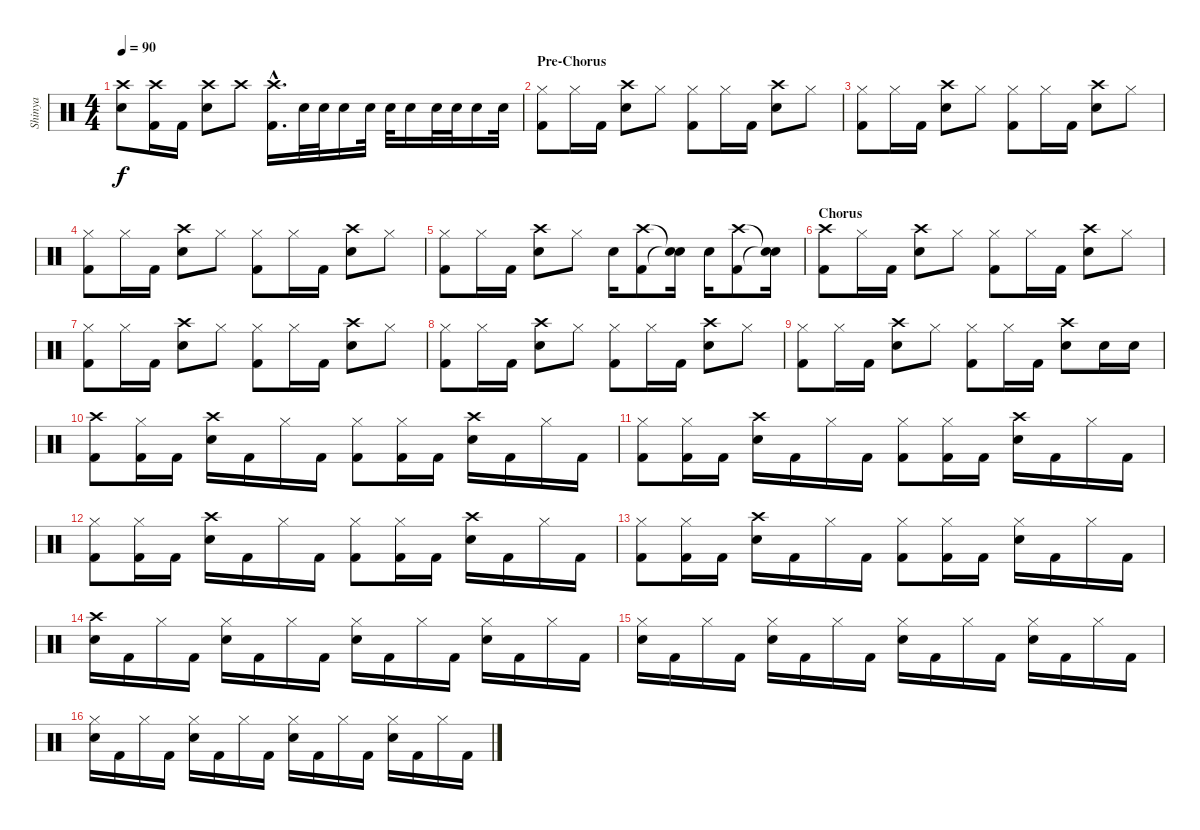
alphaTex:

\track ("Shinya" "Shinya") {instrument percussion}
\staff {score}
\articulation defaults
\ts (4 4)
\tempo 90
\clef neutral
\ks c
("Crash high (hit)" "Snare (hit) 2").8{dy f} ("Crash high (hit)" "Kick (hit) 2").16 "Kick (hit) 2".16 ("Crash high (hit)" "Snare (hit) 2").8 "Crash high (hit)".8 ("Kick (hit) 2"{hac} "Crash high (hit)").16{d} "Snare (hit) 2".32 "Snare (hit) 2".32 "Snare (hit) 2".16 "Snare (hit) 2".32 "Snare (hit) 2".32 "Snare (hit) 2".16 "Snare (hit) 2".32 "Snare (hit) 2".32 "Snare (hit) 2".16 "Snare (hit) 2".32 |
\section ("" "Pre-Chorus")
("Hi-Hat (closed)" "Kick (hit) 2").8 "Hi-Hat (closed)".16 "Kick (hit) 2".16 ("Crash high (hit)" "Snare (hit) 2").8 "Hi-Hat (closed)".8 ("Hi-Hat (closed)" "Kick (hit) 2").8 "Hi-Hat (closed)".16 "Kick (hit) 2".16 ("Crash high (hit)" "Snare (hit) 2").8 "Hi-Hat (closed)".8 |
("Hi-Hat (closed)" "Kick (hit) 2").8 "Hi-Hat (closed)".16 "Kick (hit) 2".16 ("Crash high (hit)" "Snare (hit) 2").8 "Hi-Hat (closed)".8 ("Hi-Hat (closed)" "Kick (hit) 2").8 "Hi-Hat (closed)".16 "Kick (hit) 2".16 ("Crash high (hit)" "Snare (hit) 2").8 "Hi-Hat (closed)".8 |
("Hi-Hat (closed)" "Kick (hit) 2").8 "Hi-Hat (closed)".16 "Kick (hit) 2".16 ("Crash high (hit)" "Snare (hit) 2").8 "Hi-Hat (closed)".8 ("Hi-Hat (closed)" "Kick (hit) 2").8 "Hi-Hat (closed)".16 "Kick (hit) 2".16 ("Crash high (hit)" "Snare (hit) 2").8 "Hi-Hat (closed)".8 |
("Hi-Hat (closed)" "Kick (hit) 2").8 "Hi-Hat (closed)".16 "Kick (hit) 2".16 ("Crash high (hit)" "Snare (hit) 2").8 "Hi-Hat (closed)".8 "Snare (hit) 2".16 ("Crash high (hit)" "Kick (hit) 2").8 ("Snare (hit)"{t} "Snare (hit)"{t}).16 "Snare (hit) 2".16 ("Crash high (hit)" "Kick (hit) 2").8 ("Snare (hit)"{t} "Snare (hit)"{t}).16 |
\section ("" "Chorus")
("Crash high (hit)" "Kick (hit) 2").8 "Hi-Hat (closed)".16 "Kick (hit) 2".16 ("Crash high (hit)" "Snare (hit) 2").8 "Hi-Hat (closed)".8 ("Hi-Hat (closed)" "Kick (hit) 2").8 "Hi-Hat (closed)".16 "Kick (hit) 2".16 ("Crash high (hit)" "Snare (hit) 2").8 "Hi-Hat (closed)".8 |
("Hi-Hat (closed)" "Kick (hit) 2").8 "Hi-Hat (closed)".16 "Kick (hit) 2".16 ("Crash high (hit)" "Snare (hit) 2").8 "Hi-Hat (closed)".8 ("Hi-Hat (closed)" "Kick (hit) 2").8 "Hi-Hat (closed)".16 "Kick (hit) 2".16 ("Crash high (hit)" "Snare (hit) 2").8 "Hi-Hat (closed)".8 |
("Hi-Hat (closed)" "Kick (hit) 2").8 "Hi-Hat (closed)".16 "Kick (hit) 2".16 ("Crash high (hit)" "Snare (hit) 2").8 "Hi-Hat (closed)".8 ("Hi-Hat (closed)" "Kick (hit) 2").8 "Hi-Hat (closed)".16 "Kick (hit) 2".16 ("Crash high (hit)" "Snare (hit) 2").8 "Hi-Hat (closed)".8 |
("Hi-Hat (closed)" "Kick (hit) 2").8 "Hi-Hat (closed)".16 "Kick (hit) 2".16 ("Crash high (hit)" "Snare (hit) 2").8 "Hi-Hat (closed)".8 ("Hi-Hat (closed)" "Kick (hit) 2").8 "Hi-Hat (closed)".16 "Kick (hit) 2".16 ("Crash high (hit)" "Snare (hit) 2").8 "Snare (hit) 2".16 "Snare (hit) 2".16 |
("Kick (hit) 2" "Crash high (hit)").8 ("Hi-Hat (closed)" "Kick (hit) 2").16 "Kick (hit) 2".16 ("Crash high (hit)" "Snare (hit) 2").16 "Kick (hit) 2".16 "Hi-Hat (closed)".16 "Kick (hit) 2".16 ("Kick (hit) 2" "Hi-Hat (closed)").8 ("Hi-Hat (closed)" "Kick (hit) 2").16 "Kick (hit) 2".16 ("Crash high (hit)" "Snare (hit) 2").16 "Kick (hit) 2".16 "Hi-Hat (closed)".16 "Kick (hit) 2".16 |
("Kick (hit) 2" "Hi-Hat (closed)").8 ("Hi-Hat (closed)" "Kick (hit) 2").16 "Kick (hit) 2".16 ("Crash high (hit)" "Snare (hit) 2").16 "Kick (hit) 2".16 "Hi-Hat (closed)".16 "Kick (hit) 2".16 ("Kick (hit) 2" "Hi-Hat (closed)").8 ("Hi-Hat (closed)" "Kick (hit) 2").16 "Kick (hit) 2".16 ("Crash high (hit)" "Snare (hit) 2").16 "Kick (hit) 2".16 "Hi-Hat (closed)".16 "Kick (hit) 2".16 |
("Kick (hit) 2" "Hi-Hat (closed)").8 ("Hi-Hat (closed)" "Kick (hit) 2").16 "Kick (hit) 2".16 ("Crash high (hit)" "Snare (hit) 2").16 "Kick (hit) 2".16 "Hi-Hat (closed)".16 "Kick (hit) 2".16 ("Kick (hit) 2" "Hi-Hat (closed)").8 ("Hi-Hat (closed)" "Kick (hit) 2").16 "Kick (hit) 2".16 ("Crash high (hit)" "Snare (hit) 2").16 "Kick (hit) 2".16 "Hi-Hat (closed)".16 "Kick (hit) 2".16 |
("Kick (hit) 2" "Hi-Hat (closed)").8 ("Hi-Hat (closed)" "Kick (hit) 2").16 "Kick (hit) 2".16 ("Crash high (hit)" "Snare (hit) 2").16 "Kick (hit) 2".16 "Hi-Hat (closed)".16 "Kick (hit) 2".16 ("Kick (hit) 2" "Hi-Hat (closed)").8 ("Hi-Hat (closed)" "Kick (hit) 2").16 "Kick (hit) 2".16 ("Hi-Hat (closed)" "Snare (hit) 2").16 "Kick (hit) 2".16 "Hi-Hat (closed)".16 "Kick (hit) 2".16 |
("Crash high (hit)" "Snare (hit) 2").16 "Kick (hit) 2".16 "Hi-Hat (closed)".16 "Kick (hit) 2".16 ("Hi-Hat (closed)" "Snare (hit) 2").16 "Kick (hit) 2".16 "Hi-Hat (closed)".16 "Kick (hit) 2".16 ("Hi-Hat (closed)" "Snare (hit) 2").16 "Kick (hit) 2".16 "Hi-Hat (closed)".16 "Kick (hit) 2".16 ("Hi-Hat (closed)" "Snare (hit) 2").16 "Kick (hit) 2".16 "Hi-Hat (closed)".16 "Kick (hit) 2".16 |
("Snare (hit) 2" "Hi-Hat (closed)").16 "Kick (hit) 2".16 "Hi-Hat (closed)".16 "Kick (hit) 2".16 ("Snare (hit) 2" "Hi-Hat (closed)").16 "Kick (hit) 2".16 "Hi-Hat (closed)".16 "Kick (hit) 2".16 ("Snare (hit) 2" "Hi-Hat (closed)").16 "Kick (hit) 2".16 "Hi-Hat (closed)".16 "Kick (hit) 2".16 ("Snare (hit) 2" "Hi-Hat (closed)").16 "Kick (hit) 2".16 "Hi-Hat (closed)".16 "Kick (hit) 2".16 |
("Snare (hit) 2" "Hi-Hat (closed)").16 "Kick (hit) 2".16 "Hi-Hat (closed)".16 "Kick (hit) 2".16 ("Snare (hit) 2" "Hi-Hat (closed)").16 "Kick (hit) 2".16 "Hi-Hat (closed)".16 "Kick (hit) 2".16 ("Snare (hit) 2" "Hi-Hat (closed)").16 "Kick (hit) 2".16 "Hi-Hat (closed)".16 "Kick (hit) 2".16 ("Snare (hit) 2" "Hi-Hat (closed)").16 "Kick (hit) 2".16 "Hi-Hat (closed)".16 "Kick (hit) 2".16
